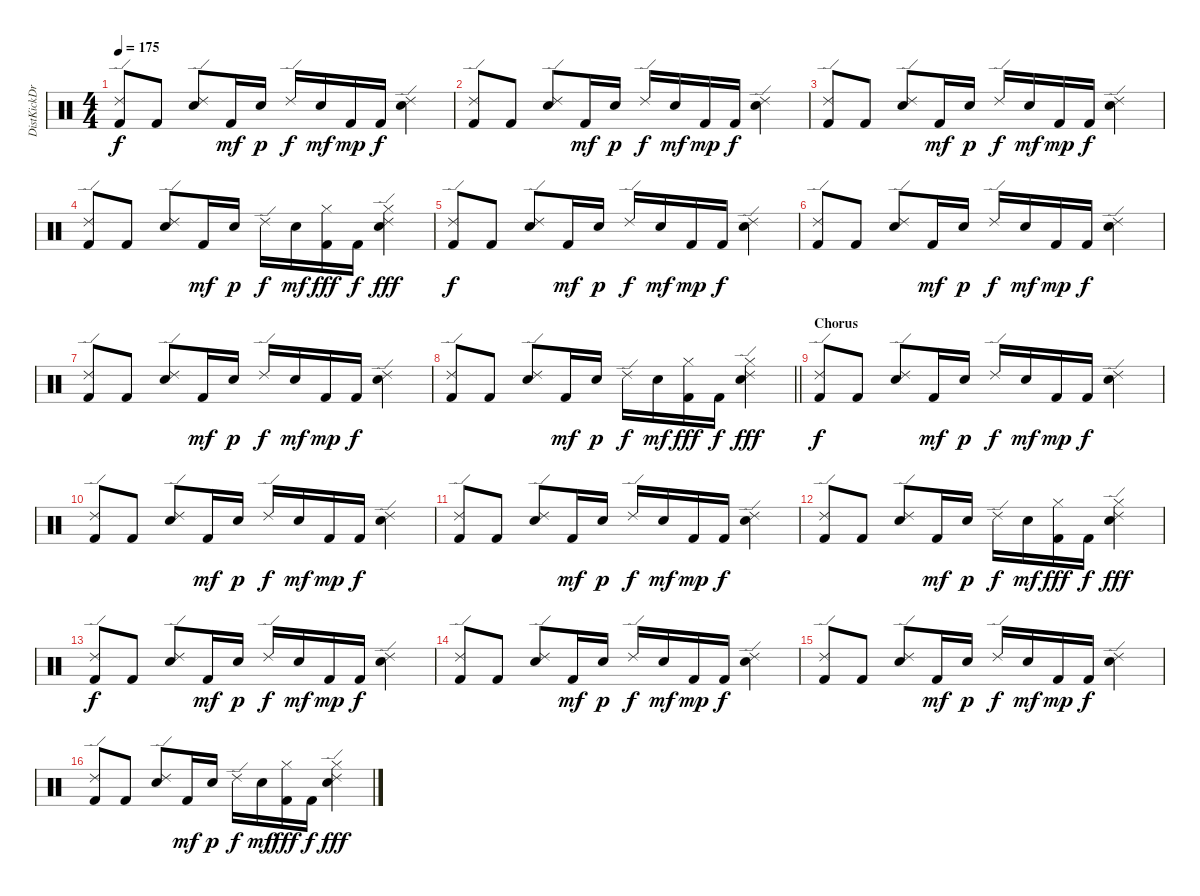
\track ("DistKickDrums" "DistKickDr") {instrument percussion}
\staff {score}
\articulation defaults
\ts (4 4)
\tempo 175
\clef neutral
\ks c
("Kick (hit) 2" "Ride (edge) 2").8{dy f} "Kick (hit) 2".8 ("Snare (hit) 2" "Ride (edge) 2").8 "Kick (hit) 2".16{dy mf} "Snare (hit) 2".16{dy p} "Ride (edge) 2".16{dy f} "Snare (hit) 2".16{dy mf} "Kick (hit) 2".16{dy mp} "Kick (hit) 2".16{dy f} ("Snare (hit) 2" "Ride (edge) 2").4 |
("Kick (hit) 2" "Ride (edge) 2").8 "Kick (hit) 2".8 ("Snare (hit) 2" "Ride (edge) 2").8 "Kick (hit) 2".16{dy mf} "Snare (hit) 2".16{dy p} "Ride (edge) 2".16{dy f} "Snare (hit) 2".16{dy mf} "Kick (hit) 2".16{dy mp} "Kick (hit) 2".16{dy f} ("Snare (hit) 2" "Ride (edge) 2").4 |
("Kick (hit) 2" "Ride (edge) 2").8 "Kick (hit) 2".8 ("Snare (hit) 2" "Ride (edge) 2").8 "Kick (hit) 2".16{dy mf} "Snare (hit) 2".16{dy p} "Ride (edge) 2".16{dy f} "Snare (hit) 2".16{dy mf} "Kick (hit) 2".16{dy mp} "Kick (hit) 2".16{dy f} ("Snare (hit) 2" "Ride (edge) 2").4 |
("Kick (hit) 2" "Ride (edge) 2").8 "Kick (hit) 2".8 ("Snare (hit) 2" "Ride (edge) 2").8 "Kick (hit) 2".16{dy mf} "Snare (hit) 2".16{dy p} "Ride (edge) 2".16{dy f} "Snare (hit) 2".16{dy mf} ("Kick (hit) 2" "Cowbell high (tip)").16{dy fff} "Kick (hit) 2".16{dy f} ("Snare (hit) 2" "Ride (edge) 2" "Cowbell high (tip)").4{dy fff} |
("Kick (hit) 2" "Ride (edge) 2").8{dy f} "Kick (hit) 2".8 ("Snare (hit) 2" "Ride (edge) 2").8 "Kick (hit) 2".16{dy mf} "Snare (hit) 2".16{dy p} "Ride (edge) 2".16{dy f} "Snare (hit) 2".16{dy mf} "Kick (hit) 2".16{dy mp} "Kick (hit) 2".16{dy f} ("Snare (hit) 2" "Ride (edge) 2").4 |
("Kick (hit) 2" "Ride (edge) 2").8 "Kick (hit) 2".8 ("Snare (hit) 2" "Ride (edge) 2").8 "Kick (hit) 2".16{dy mf} "Snare (hit) 2".16{dy p} "Ride (edge) 2".16{dy f} "Snare (hit) 2".16{dy mf} "Kick (hit) 2".16{dy mp} "Kick (hit) 2".16{dy f} ("Snare (hit) 2" "Ride (edge) 2").4 |
("Kick (hit) 2" "Ride (edge) 2").8 "Kick (hit) 2".8 ("Snare (hit) 2" "Ride (edge) 2").8 "Kick (hit) 2".16{dy mf} "Snare (hit) 2".16{dy p} "Ride (edge) 2".16{dy f} "Snare (hit) 2".16{dy mf} "Kick (hit) 2".16{dy mp} "Kick (hit) 2".16{dy f} ("Snare (hit) 2" "Ride (edge) 2").4 |
\barLineRight lightlight
("Kick (hit) 2" "Ride (edge) 2").8 "Kick (hit) 2".8 ("Snare (hit) 2" "Ride (edge) 2").8 "Kick (hit) 2".16{dy mf} "Snare (hit) 2".16{dy p} "Ride (edge) 2".16{dy f} "Snare (hit) 2".16{dy mf} ("Kick (hit) 2" "Cowbell high (tip)").16{dy fff} "Kick (hit) 2".16{dy f} ("Snare (hit) 2" "Ride (edge) 2" "Cowbell high (tip)").4{dy fff} |
\section ("" "Chorus")
("Kick (hit) 2" "Ride (edge) 2").8{dy f} "Kick (hit) 2".8 ("Snare (hit) 2" "Ride (edge) 2").8 "Kick (hit) 2".16{dy mf} "Snare (hit) 2".16{dy p} "Ride (edge) 2".16{dy f} "Snare (hit) 2".16{dy mf} "Kick (hit) 2".16{dy mp} "Kick (hit) 2".16{dy f} ("Snare (hit) 2" "Ride (edge) 2").4 |
("Kick (hit) 2" "Ride (edge) 2").8 "Kick (hit) 2".8 ("Snare (hit) 2" "Ride (edge) 2").8 "Kick (hit) 2".16{dy mf} "Snare (hit) 2".16{dy p} "Ride (edge) 2".16{dy f} "Snare (hit) 2".16{dy mf} "Kick (hit) 2".16{dy mp} "Kick (hit) 2".16{dy f} ("Snare (hit) 2" "Ride (edge) 2").4 |
("Kick (hit) 2" "Ride (edge) 2").8 "Kick (hit) 2".8 ("Snare (hit) 2" "Ride (edge) 2").8 "Kick (hit) 2".16{dy mf} "Snare (hit) 2".16{dy p} "Ride (edge) 2".16{dy f} "Snare (hit) 2".16{dy mf} "Kick (hit) 2".16{dy mp} "Kick (hit) 2".16{dy f} ("Snare (hit) 2" "Ride (edge) 2").4 |
("Kick (hit) 2" "Ride (edge) 2").8 "Kick (hit) 2".8 ("Snare (hit) 2" "Ride (edge) 2").8 "Kick (hit) 2".16{dy mf} "Snare (hit) 2".16{dy p} "Ride (edge) 2".16{dy f} "Snare (hit) 2".16{dy mf} ("Kick (hit) 2" "Cowbell high (tip)").16{dy fff} "Kick (hit) 2".16{dy f} ("Snare (hit) 2" "Ride (edge) 2" "Cowbell high (tip)").4{dy fff} |
("Kick (hit) 2" "Ride (edge) 2").8{dy f} "Kick (hit) 2".8 ("Snare (hit) 2" "Ride (edge) 2").8 "Kick (hit) 2".16{dy mf} "Snare (hit) 2".16{dy p} "Ride (edge) 2".16{dy f} "Snare (hit) 2".16{dy mf} "Kick (hit) 2".16{dy mp} "Kick (hit) 2".16{dy f} ("Snare (hit) 2" "Ride (edge) 2").4 |
("Kick (hit) 2" "Ride (edge) 2").8 "Kick (hit) 2".8 ("Snare (hit) 2" "Ride (edge) 2").8 "Kick (hit) 2".16{dy mf} "Snare (hit) 2".16{dy p} "Ride (edge) 2".16{dy f} "Snare (hit) 2".16{dy mf} "Kick (hit) 2".16{dy mp} "Kick (hit) 2".16{dy f} ("Snare (hit) 2" "Ride (edge) 2").4 |
("Kick (hit) 2" "Ride (edge) 2").8 "Kick (hit) 2".8 ("Snare (hit) 2" "Ride (edge) 2").8 "Kick (hit) 2".16{dy mf} "Snare (hit) 2".16{dy p} "Ride (edge) 2".16{dy f} "Snare (hit) 2".16{dy mf} "Kick (hit) 2".16{dy mp} "Kick (hit) 2".16{dy f} ("Snare (hit) 2" "Ride (edge) 2").4 |
("Kick (hit) 2" "Ride (edge) 2").8 "Kick (hit) 2".8 ("Snare (hit) 2" "Ride (edge) 2").8 "Kick (hit) 2".16{dy mf} "Snare (hit) 2".16{dy p} "Ride (edge) 2".16{dy f} "Snare (hit) 2".16{dy mf} ("Kick (hit) 2" "Cowbell high (tip)").16{dy fff} "Kick (hit) 2".16{dy f} ("Snare (hit) 2" "Ride (edge) 2" "Cowbell high (tip)").4{dy fff}
